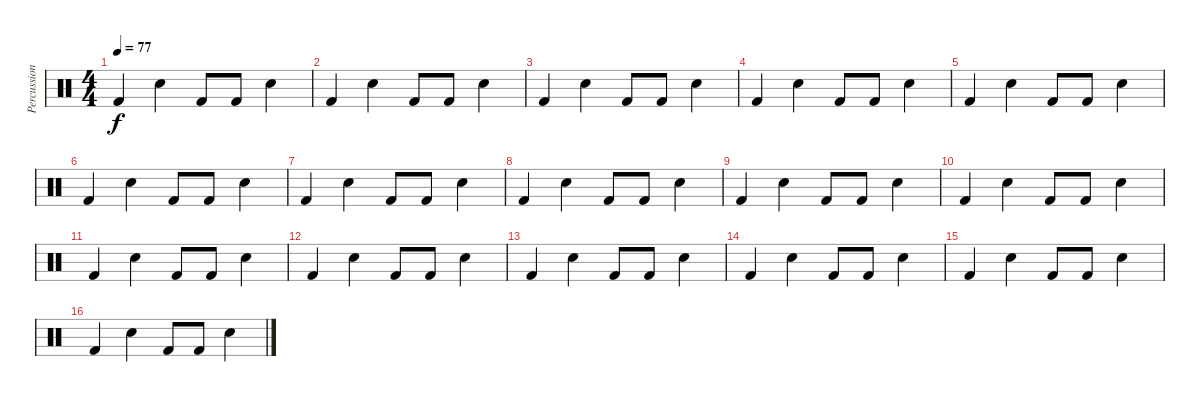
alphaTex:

\track ("Percussion" "Percussion") {instrument percussion}
\staff {score}
\articulation defaults
\ts (4 4)
\tempo 77
\clef neutral
\ks c "Kick (hit) 2".4{dy f} "Snare (hit) 2".4 "Kick (hit) 2".8 "Kick (hit) 2".8 "Snare (hit) 2".4
|
"Kick (hit) 2".4 "Snare (hit) 2".4 "Kick (hit) 2".8 "Kick (hit) 2".8 "Snare (hit) 2".4 |
"Kick (hit) 2".4 "Snare (hit) 2".4 "Kick (hit) 2".8 "Kick (hit) 2".8 "Snare (hit) 2".4 |
"Kick (hit) 2".4 "Snare (hit) 2".4 "Kick (hit) 2".8 "Kick (hit) 2".8 "Snare (hit) 2".4 |
"Kick (hit) 2".4 "Snare (hit) 2".4 "Kick (hit) 2".8 "Kick (hit) 2".8 "Snare (hit) 2".4 |
"Kick (hit) 2".4 "Snare (hit) 2".4 "Kick (hit) 2".8 "Kick (hit) 2".8 "Snare (hit) 2".4 |
"Kick (hit) 2".4 "Snare (hit) 2".4 "Kick (hit) 2".8 "Kick (hit) 2".8 "Snare (hit) 2".4 |
"Kick (hit) 2".4 "Snare (hit) 2".4 "Kick (hit) 2".8 "Kick (hit) 2".8 "Snare (hit) 2".4 |
"Kick (hit) 2".4 "Snare (hit) 2".4 "Kick (hit) 2".8 "Kick (hit) 2".8 "Snare (hit) 2".4 |
"Kick (hit) 2".4 "Snare (hit) 2".4 "Kick (hit) 2".8 "Kick (hit) 2".8 "Snare (hit) 2".4 |
"Kick (hit) 2".4 "Snare (hit) 2".4 "Kick (hit) 2".8 "Kick (hit) 2".8 "Snare (hit) 2".4 |
"Kick (hit) 2".4 "Snare (hit) 2".4 "Kick (hit) 2".8 "Kick (hit) 2".8 "Snare (hit) 2".4 |
"Kick (hit) 2".4 "Snare (hit) 2".4 "Kick (hit) 2".8 "Kick (hit) 2".8 "Snare (hit) 2".4 |
"Kick (hit) 2".4 "Snare (hit) 2".4 "Kick (hit) 2".8 "Kick (hit) 2".8 "Snare (hit) 2".4 |
"Kick (hit) 2".4 "Snare (hit) 2".4 "Kick (hit) 2".8 "Kick (hit) 2".8 "Snare (hit) 2".4 |
"Kick (hit) 2".4 "Snare (hit) 2".4 "Kick (hit) 2".8 "Kick (hit) 2".8 "Snare (hit) 2".4
